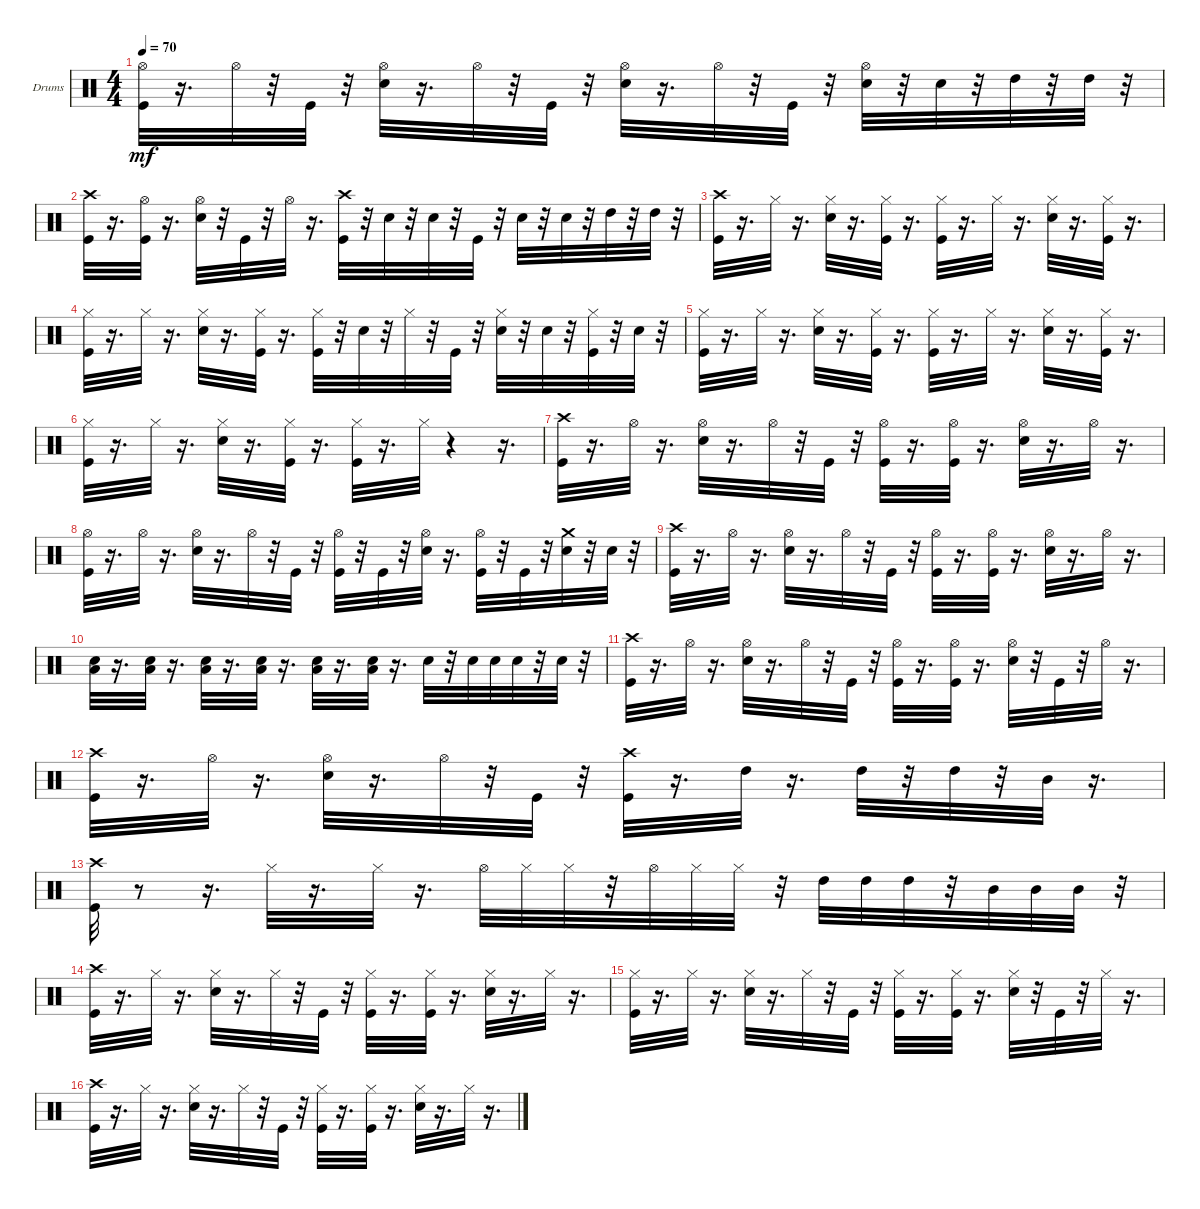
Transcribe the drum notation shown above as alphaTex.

\bracketExtendMode groupsimilarinstruments
\firstSystemTrackNameOrientation horizontal
\otherSystemsTrackNameOrientation horizontal
\track ("" "Drums") {instrument percussion}
\staff {score}
\articulation defaults
\ts (4 4)
\tempo 70
\clef neutral
\ks c
("Hi-Hat (open)" "Kick (hit)").32{dy mf} r.16{d} "Hi-Hat (open)".32 r.32 "Kick (hit)".32 r.32 ("Snare (hit) 2" "Hi-Hat (open)").32 r.16{d} "Hi-Hat (open)".32 r.32 "Kick (hit)".32 r.32 ("Snare (hit) 2" "Hi-Hat (open)").32 r.16{d} "Hi-Hat (open)".32 r.32 "Kick (hit)".32 r.32 ("Snare (hit) 2" "Hi-Hat (open)").32 r.32 "Snare (hit) 2".32 r.32 "High Tom (hit)".32 r.32 "High Tom (hit)".32 r.32 |
("Crash high (hit)" "Kick (hit)").32 r.16{d} ("Kick (hit)" "Hi-Hat (open)").32 r.16{d} ("Snare (hit) 2" "Hi-Hat (open)").32 r.32 "Kick (hit)".32 r.32 "Hi-Hat (open)".32 r.16{d} ("Crash high (hit)" "Kick (hit)").32 r.32 "Snare (hit) 2".32 r.32 "Snare (hit) 2".32 r.32 "Kick (hit)".32 r.32 "Snare (hit) 2".32 r.32 "Snare (hit) 2".32 r.32 "High Tom (hit)".32 r.32 "High Tom (hit)".32 r.32 |
("Crash high (hit)" "Kick (hit)").32 r.16{d} "Hi-Hat (closed)".32 r.16{d} ("Snare (hit) 2" "Hi-Hat (closed)").32 r.16{d} ("Kick (hit)" "Hi-Hat (closed)").32 r.16{d} ("Kick (hit)" "Hi-Hat (closed)").32 r.16{d} "Hi-Hat (closed)".32 r.16{d} ("Snare (hit) 2" "Hi-Hat (closed)").32 r.16{d} ("Kick (hit)" "Hi-Hat (closed)").32 r.16{d} |
("Hi-Hat (closed)" "Kick (hit)").32 r.16{d} "Hi-Hat (closed)".32 r.16{d} ("Snare (hit) 2" "Hi-Hat (closed)").32 r.16{d} ("Kick (hit)" "Hi-Hat (closed)").32 r.16{d} ("Kick (hit)" "Hi-Hat (closed)").32 r.32 "Snare (hit) 2".32 r.32 "Hi-Hat (closed)".32 r.32 "Kick (hit)".32 r.32 ("Snare (hit) 2" "Hi-Hat (closed)").32 r.32 "Snare (hit) 2".32 r.32 ("Kick (hit)" "Hi-Hat (closed)").32 r.32 "Snare (hit) 2".32 r.32 |
("Hi-Hat (closed)" "Kick (hit)").32 r.16{d} "Hi-Hat (closed)".32 r.16{d} ("Snare (hit) 2" "Hi-Hat (closed)").32 r.16{d} ("Kick (hit)" "Hi-Hat (closed)").32 r.16{d} ("Kick (hit)" "Hi-Hat (closed)").32 r.16{d} "Hi-Hat (closed)".32 r.16{d} ("Snare (hit) 2" "Hi-Hat (closed)").32 r.16{d} ("Kick (hit)" "Hi-Hat (closed)").32 r.16{d} |
("Hi-Hat (closed)" "Kick (hit)").32 r.16{d} "Hi-Hat (closed)".32 r.16{d} ("Snare (hit) 2" "Hi-Hat (closed)").32 r.16{d} ("Kick (hit)" "Hi-Hat (closed)").32 r.16{d} ("Hi-Hat (closed)" "Kick (hit)").32 r.16{d} "Hi-Hat (closed)".32 r.4 r.16{d} |
("Crash high (hit)" "Kick (hit)").32 r.16{d} "Hi-Hat (open)".32 r.16{d} ("Snare (hit) 2" "Hi-Hat (open)").32 r.16{d} "Hi-Hat (open)".32 r.32 "Kick (hit)".32 r.32 ("Kick (hit)" "Hi-Hat (open)").32 r.16{d} ("Kick (hit)" "Hi-Hat (open)").32 r.16{d} ("Snare (hit) 2" "Hi-Hat (open)").32 r.16{d} "Hi-Hat (open)".32 r.16{d} |
("Hi-Hat (open)" "Kick (hit)").32 r.16{d} "Hi-Hat (open)".32 r.16{d} ("Snare (hit) 2" "Hi-Hat (open)").32 r.16{d} "Hi-Hat (open)".32 r.32 "Kick (hit)".32 r.32 ("Kick (hit)" "Hi-Hat (open)").32 r.32 "Kick (hit)".32 r.32 ("Snare (hit) 2" "Hi-Hat (open)").32 r.16{d} ("Hi-Hat (open)" "Kick (hit)").32 r.32 "Kick (hit)".32 r.32 ("Crash medium (hit)" "Snare (hit) 2").32 r.32 "Snare (hit) 2".32 r.32 |
("Crash high (hit)" "Kick (hit)").32 r.16{d} "Hi-Hat (open)".32 r.16{d} ("Snare (hit) 2" "Hi-Hat (open)").32 r.16{d} "Hi-Hat (open)".32 r.32 "Kick (hit)".32 r.32 ("Kick (hit)" "Hi-Hat (open)").32 r.16{d} ("Kick (hit)" "Hi-Hat (open)").32 r.16{d} ("Snare (hit) 2" "Hi-Hat (open)").32 r.16{d} "Hi-Hat (open)".32 r.16{d} |
("Low Tom (hit)" "Snare (hit) 2").32 r.16{d} ("Snare (hit) 2" "Low Tom (hit)").32 r.16{d} ("Low Tom (hit)" "Snare (hit) 2").32 r.16{d} ("Snare (hit) 2" "Low Tom (hit)").32 r.16{d} ("Low Tom (hit)" "Snare (hit) 2").32 r.16{d} ("Low Tom (hit)" "Snare (hit) 2").32 r.16{d} "Snare (hit) 2".32 r.32 "Snare (hit) 2".32 "Snare (hit) 2".32 "Snare (hit) 2".32 r.32 "Snare (hit) 2".32 r.32 |
("Crash high (hit)" "Kick (hit)").32 r.16{d} "Hi-Hat (open)".32 r.16{d} ("Snare (hit) 2" "Hi-Hat (open)").32 r.16{d} "Hi-Hat (open)".32 r.32 "Kick (hit)".32 r.32 ("Kick (hit)" "Hi-Hat (open)").32 r.16{d} ("Kick (hit)" "Hi-Hat (open)").32 r.16{d} ("Snare (hit) 2" "Hi-Hat (open)").32 r.32 "Kick (hit)".32 r.32 "Hi-Hat (open)".32 r.16{d} |
("Crash high (hit)" "Kick (hit)").32 r.16{d} "Hi-Hat (open)".32 r.16{d} ("Snare (hit) 2" "Hi-Hat (open)").32 r.16{d} "Hi-Hat (open)".32 r.32 "Kick (hit)".32 r.32 ("Crash high (hit)" "Kick (hit)").32 r.16{d} "High Tom (hit)".32 r.16{d} "High Tom (hit)".32 r.32 "High Tom (hit)".32 r.32 "Mid Tom (hit)".32 r.16{d} |
("Crash high (hit)" "Kick (hit)").32 r.8 r.16{d} "Hi-Hat (closed)".32 r.16{d} "Hi-Hat (closed)".32 r.16{d} "Hi-Hat (open)".32 "Hi-Hat (closed)".32 "Hi-Hat (closed)".32 r.32 "Hi-Hat (open)".32 "Hi-Hat (closed)".32 "Hi-Hat (closed)".32 r.32 "High Tom (hit)".32 "High Tom (hit)".32 "High Tom (hit)".32 r.32 "Mid Tom (hit)".32 "Mid Tom (hit)".32 "Mid Tom (hit)".32 r.32 |
("Crash high (hit)" "Kick (hit)").32 r.16{d} "Hi-Hat (closed)".32 r.16{d} ("Hi-Hat (closed)" "Snare (hit) 2").32 r.16{d} "Hi-Hat (closed)".32 r.32 "Kick (hit)".32 r.32 ("Kick (hit)" "Hi-Hat (closed)").32 r.16{d} ("Kick (hit)" "Hi-Hat (closed)").32 r.16{d} ("Snare (hit) 2" "Hi-Hat (closed)").32 r.16{d} "Hi-Hat (closed)".32 r.16{d} |
("Hi-Hat (closed)" "Kick (hit)").32 r.16{d} "Hi-Hat (closed)".32 r.16{d} ("Hi-Hat (closed)" "Snare (hit) 2").32 r.16{d} "Hi-Hat (closed)".32 r.32 "Kick (hit)".32 r.32 ("Hi-Hat (closed)" "Kick (hit)").32 r.16{d} ("Hi-Hat (closed)" "Kick (hit)").32 r.16{d} ("Hi-Hat (closed)" "Snare (hit) 2").32 r.32 "Kick (hit)".32 r.32 "Hi-Hat (closed)".32 r.16{d} |
("Crash high (hit)" "Kick (hit)").32 r.16{d} "Hi-Hat (closed)".32 r.16{d} ("Hi-Hat (closed)" "Snare (hit) 2").32 r.16{d} "Hi-Hat (closed)".32 r.32 "Kick (hit)".32 r.32 ("Kick (hit)" "Hi-Hat (closed)").32 r.16{d} ("Kick (hit)" "Hi-Hat (closed)").32 r.16{d} ("Snare (hit) 2" "Hi-Hat (closed)").32 r.16{d} "Hi-Hat (closed)".32 r.16{d}
